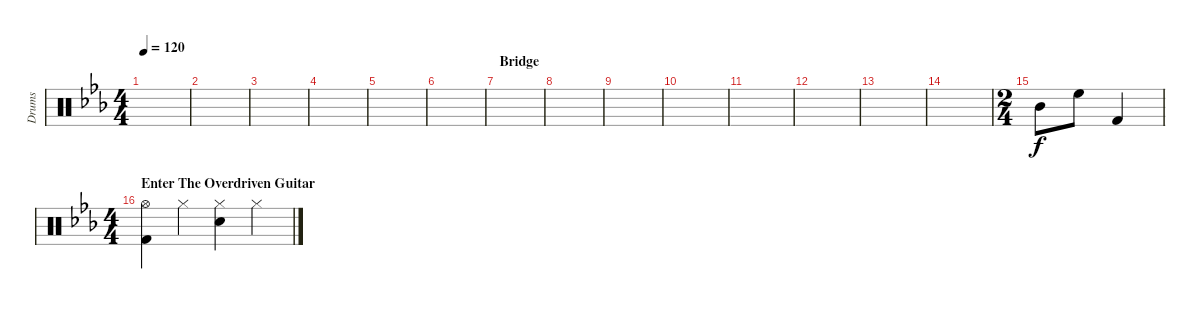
\track ("Drums" "Drums") {instrument percussion}
\staff {score}
\articulation defaults
\ts (4 4)
\tempo 120
\clef neutral
\ks cminor
|
|
|
|
|
|
\section ("" "Bridge")
|
|
|
|
|
|
|
|
\ts (2 4)
"Mid Tom (hit)".8 "High Floor Tom (hit)".8 "Kick (hit) 2".4 |
\ts (4 4)
\section ("" "Enter The Overdriven Guitar")
("Hi-Hat (open)" "Kick (hit) 2").4 "Hi-Hat (closed)".4 ("Hi-Hat (closed)" "Snare (hit) 2").4 "Hi-Hat (closed)".4
